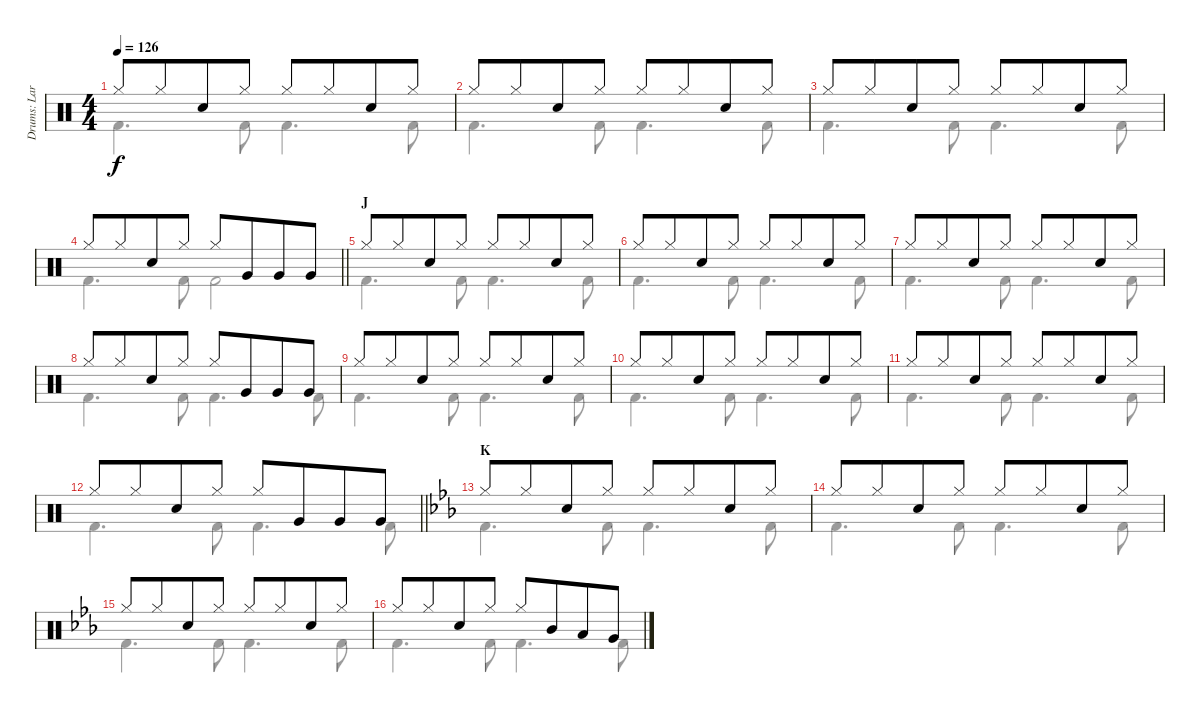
\track ("Drums: Larrie" "Drums: Lar") {instrument percussion}
\staff {score}
\articulation defaults
\voice
\ts (4 4)
\tempo 126
\clef neutral
\ks c "Hi-Hat (closed)".8{dy f} "Hi-Hat (closed)".8{beam merge} "Snare (hit) 2".8 "Hi-Hat (closed)".8 "Hi-Hat (closed)".8 "Hi-Hat (closed)".8{beam merge} "Snare (hit) 2".8 "Hi-Hat (closed)".8
|
"Hi-Hat (closed)".8 "Hi-Hat (closed)".8{beam merge} "Snare (hit) 2".8 "Hi-Hat (closed)".8 "Hi-Hat (closed)".8 "Hi-Hat (closed)".8{beam merge} "Snare (hit) 2".8 "Hi-Hat (closed)".8 |
"Hi-Hat (closed)".8 "Hi-Hat (closed)".8{beam merge} "Snare (hit) 2".8 "Hi-Hat (closed)".8 "Hi-Hat (closed)".8 "Hi-Hat (closed)".8{beam merge} "Snare (hit) 2".8 "Hi-Hat (closed)".8 |
\barLineRight lightlight "Hi-Hat (closed)".8 "Hi-Hat (closed)".8{beam merge} "Snare (hit) 2".8 "Hi-Hat (closed)".8 "Hi-Hat (closed)".8 "Very Low Tom (hit)".8{beam merge} "Very Low Tom (hit)".8 "Very Low Tom (hit)".8
|
\section ("" "J")
"Hi-Hat (closed)".8 "Hi-Hat (closed)".8{beam merge} "Snare (hit) 2".8 "Hi-Hat (closed)".8 "Hi-Hat (closed)".8 "Hi-Hat (closed)".8{beam merge} "Snare (hit) 2".8 "Hi-Hat (closed)".8 |
"Hi-Hat (closed)".8 "Hi-Hat (closed)".8{beam merge} "Snare (hit) 2".8 "Hi-Hat (closed)".8 "Hi-Hat (closed)".8 "Hi-Hat (closed)".8{beam merge} "Snare (hit) 2".8 "Hi-Hat (closed)".8 |
"Hi-Hat (closed)".8 "Hi-Hat (closed)".8{beam merge} "Snare (hit) 2".8 "Hi-Hat (closed)".8 "Hi-Hat (closed)".8 "Hi-Hat (closed)".8{beam merge} "Snare (hit) 2".8 "Hi-Hat (closed)".8 |
"Hi-Hat (closed)".8 "Hi-Hat (closed)".8{beam merge} "Snare (hit) 2".8 "Hi-Hat (closed)".8 "Hi-Hat (closed)".8 "Very Low Tom (hit)".8{beam merge} "Very Low Tom (hit)".8 "Very Low Tom (hit)".8 |
"Hi-Hat (closed)".8 "Hi-Hat (closed)".8{beam merge} "Snare (hit) 2".8 "Hi-Hat (closed)".8 "Hi-Hat (closed)".8 "Hi-Hat (closed)".8{beam merge} "Snare (hit) 2".8 "Hi-Hat (closed)".8 |
"Hi-Hat (closed)".8 "Hi-Hat (closed)".8{beam merge} "Snare (hit) 2".8 "Hi-Hat (closed)".8 "Hi-Hat (closed)".8 "Hi-Hat (closed)".8{beam merge} "Snare (hit) 2".8 "Hi-Hat (closed)".8 |
"Hi-Hat (closed)".8 "Hi-Hat (closed)".8{beam merge} "Snare (hit) 2".8 "Hi-Hat (closed)".8 "Hi-Hat (closed)".8 "Hi-Hat (closed)".8{beam merge} "Snare (hit) 2".8 "Hi-Hat (closed)".8 |
\barLineRight lightlight "Hi-Hat (closed)".8 "Hi-Hat (closed)".8{beam merge} "Snare (hit) 2".8 "Hi-Hat (closed)".8 "Hi-Hat (closed)".8 "Very Low Tom (hit)".8{beam merge} "Very Low Tom (hit)".8 "Very Low Tom (hit)".8
|
\section ("" "K")
\ks eb "Hi-Hat (closed)".8 "Hi-Hat (closed)".8{beam merge} "Snare (hit) 2".8 "Hi-Hat (closed)".8 "Hi-Hat (closed)".8 "Hi-Hat (closed)".8{beam merge} "Snare (hit) 2".8 "Hi-Hat (closed)".8
|
"Hi-Hat (closed)".8 "Hi-Hat (closed)".8{beam merge} "Snare (hit) 2".8 "Hi-Hat (closed)".8 "Hi-Hat (closed)".8 "Hi-Hat (closed)".8{beam merge} "Snare (hit) 2".8 "Hi-Hat (closed)".8 |
"Hi-Hat (closed)".8 "Hi-Hat (closed)".8{beam merge} "Snare (hit) 2".8 "Hi-Hat (closed)".8 "Hi-Hat (closed)".8 "Hi-Hat (closed)".8{beam merge} "Snare (hit) 2".8 "Hi-Hat (closed)".8 |
"Hi-Hat (closed)".8 "Hi-Hat (closed)".8{beam merge} "Snare (hit) 2".8 "Hi-Hat (closed)".8 "Hi-Hat (closed)".8 "Mid Tom (hit)".8{beam merge} "Low Tom (hit)".8 "Very Low Tom (hit)".8
\voice
\clef neutral
\ottava regular
\simile none
\ks c "Kick (hit) 2".4{d dy f} "Kick (hit) 2".8 "Kick (hit) 2".4{d} "Kick (hit) 2".8
|
"Kick (hit) 2".4{d} "Kick (hit) 2".8 "Kick (hit) 2".4{d} "Kick (hit) 2".8 |
"Kick (hit) 2".4{d} "Kick (hit) 2".8 "Kick (hit) 2".4{d} "Kick (hit) 2".8 |
\barLineRight lightlight "Kick (hit) 2".4{d} "Kick (hit) 2".8 "Kick (hit) 2".2
|
"Kick (hit) 2".4{d} "Kick (hit) 2".8 "Kick (hit) 2".4{d} "Kick (hit) 2".8 |
"Kick (hit) 2".4{d} "Kick (hit) 2".8 "Kick (hit) 2".4{d} "Kick (hit) 2".8 |
"Kick (hit) 2".4{d} "Kick (hit) 2".8 "Kick (hit) 2".4{d} "Kick (hit) 2".8 |
"Kick (hit) 2".4{d} "Kick (hit) 2".8 "Kick (hit) 2".4{d} "Kick (hit) 2".8 |
"Kick (hit) 2".4{d} "Kick (hit) 2".8 "Kick (hit) 2".4{d} "Kick (hit) 2".8 |
"Kick (hit) 2".4{d} "Kick (hit) 2".8 "Kick (hit) 2".4{d} "Kick (hit) 2".8 |
"Kick (hit) 2".4{d} "Kick (hit) 2".8 "Kick (hit) 2".4{d} "Kick (hit) 2".8 |
\barLineRight lightlight "Kick (hit) 2".4{d} "Kick (hit) 2".8 "Kick (hit) 2".4{d} "Kick (hit) 2".8
|
\ks eb "Kick (hit) 2".4{d} "Kick (hit) 2".8 "Kick (hit) 2".4{d} "Kick (hit) 2".8
|
"Kick (hit) 2".4{d} "Kick (hit) 2".8 "Kick (hit) 2".4{d} "Kick (hit) 2".8 |
"Kick (hit) 2".4{d} "Kick (hit) 2".8 "Kick (hit) 2".4{d} "Kick (hit) 2".8 |
"Kick (hit) 2".4{d} "Kick (hit) 2".8 "Kick (hit) 2".4{d} "Kick (hit) 2".8
